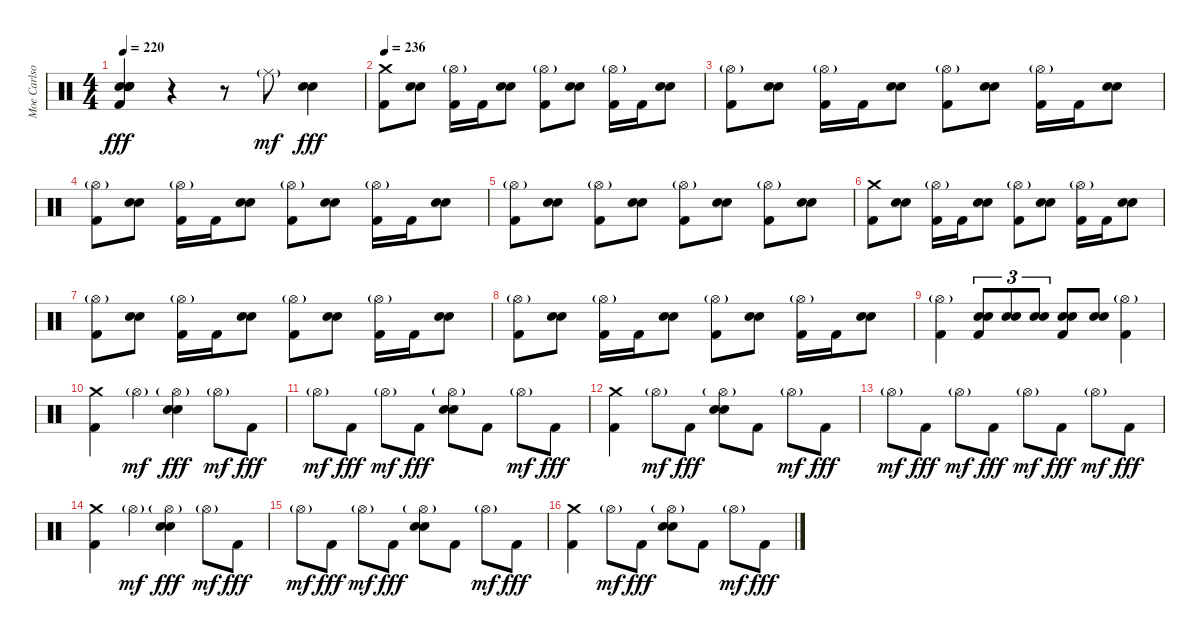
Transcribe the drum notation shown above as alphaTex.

\track ("Moe Carlson" "Moe Carlso") {instrument percussion}
\staff {score}
\articulation defaults
\ts (4 4)
\tempo 220
\clef neutral
\ks c
("Snare (hit) 2" "Snare (hit) 2" "Electric Snare (hit)" "Electric Snare (hit)" "Kick (hit) 2").4{dy fff} r.4 r.8 "Ride (middle)"{g}.8{dy mf} ("Snare (hit) 2" "Electric Snare (hit)").4{dy fff} |
\tempo 236
("Crash medium (hit)" "Kick (hit) 2").8 ("Snare (hit) 2" "Electric Snare (hit)").8 ("Hi-Hat (open)"{g} "Kick (hit) 2").16 "Kick (hit) 2".16 ("Snare (hit) 2" "Electric Snare (hit)").8 ("Hi-Hat (open)"{g} "Kick (hit) 2").8 ("Snare (hit) 2" "Electric Snare (hit)").8 ("Hi-Hat (open)"{g} "Kick (hit) 2").16 "Kick (hit) 2".16 ("Snare (hit) 2" "Electric Snare (hit)").8 |
("Hi-Hat (open)"{g} "Kick (hit) 2").8 ("Snare (hit) 2" "Electric Snare (hit)").8 ("Hi-Hat (open)"{g} "Kick (hit) 2").16 "Kick (hit) 2".16 ("Snare (hit) 2" "Electric Snare (hit)").8 ("Hi-Hat (open)"{g} "Kick (hit) 2").8 ("Snare (hit) 2" "Electric Snare (hit)").8 ("Hi-Hat (open)"{g} "Kick (hit) 2").16 "Kick (hit) 2".16 ("Snare (hit) 2" "Electric Snare (hit)").8 |
("Hi-Hat (open)"{g} "Kick (hit) 2").8 ("Snare (hit) 2" "Electric Snare (hit)").8 ("Hi-Hat (open)"{g} "Kick (hit) 2").16 "Kick (hit) 2".16 ("Snare (hit) 2" "Electric Snare (hit)").8 ("Hi-Hat (open)"{g} "Kick (hit) 2").8 ("Snare (hit) 2" "Electric Snare (hit)").8 ("Hi-Hat (open)"{g} "Kick (hit) 2").16 "Kick (hit) 2".16 ("Snare (hit) 2" "Electric Snare (hit)").8 |
("Hi-Hat (open)"{g} "Kick (hit) 2").8 ("Snare (hit) 2" "Electric Snare (hit)").8 ("Hi-Hat (open)"{g} "Kick (hit) 2").8 ("Snare (hit) 2" "Electric Snare (hit)").8 ("Hi-Hat (open)"{g} "Kick (hit) 2").8 ("Snare (hit) 2" "Electric Snare (hit)").8 ("Hi-Hat (open)"{g} "Kick (hit) 2").8 ("Snare (hit) 2" "Electric Snare (hit)").8 |
("Crash medium (hit)" "Kick (hit) 2").8 ("Snare (hit) 2" "Electric Snare (hit)").8 ("Hi-Hat (open)"{g} "Kick (hit) 2").16 "Kick (hit) 2".16 ("Snare (hit) 2" "Electric Snare (hit)").8 ("Hi-Hat (open)"{g} "Kick (hit) 2").8 ("Snare (hit) 2" "Electric Snare (hit)").8 ("Hi-Hat (open)"{g} "Kick (hit) 2").16 "Kick (hit) 2".16 ("Snare (hit) 2" "Electric Snare (hit)").8 |
("Hi-Hat (open)"{g} "Kick (hit) 2").8 ("Snare (hit) 2" "Electric Snare (hit)").8 ("Hi-Hat (open)"{g} "Kick (hit) 2").16 "Kick (hit) 2".16 ("Snare (hit) 2" "Electric Snare (hit)").8 ("Hi-Hat (open)"{g} "Kick (hit) 2").8 ("Snare (hit) 2" "Electric Snare (hit)").8 ("Hi-Hat (open)"{g} "Kick (hit) 2").16 "Kick (hit) 2".16 ("Snare (hit) 2" "Electric Snare (hit)").8 |
("Hi-Hat (open)"{g} "Kick (hit) 2").8 ("Snare (hit) 2" "Electric Snare (hit)").8 ("Hi-Hat (open)"{g} "Kick (hit) 2").16 "Kick (hit) 2".16 ("Snare (hit) 2" "Electric Snare (hit)").8 ("Hi-Hat (open)"{g} "Kick (hit) 2").8 ("Snare (hit) 2" "Electric Snare (hit)").8 ("Hi-Hat (open)"{g} "Kick (hit) 2").16 "Kick (hit) 2".16 ("Snare (hit) 2" "Electric Snare (hit)").8 |
("Hi-Hat (open)"{g} "Kick (hit) 2").4 ("Snare (hit) 2" "Electric Snare (hit)" "Kick (hit) 2").8{tu (3 2)} ("Snare (hit) 2" "Electric Snare (hit)").8{tu (3 2)} ("Snare (hit) 2" "Electric Snare (hit)").8{tu (3 2)} ("Snare (hit) 2" "Electric Snare (hit)" "Kick (hit) 2").8 ("Snare (hit) 2" "Electric Snare (hit)").8 ("Hi-Hat (open)"{g} "Kick (hit) 2").4 |
("Crash medium (hit)" "Kick (hit) 2").4 "Hi-Hat (open)"{g}.4{dy mf} ("Hi-Hat (open)"{g} "Snare (hit) 2" "Electric Snare (hit)").4{dy fff} "Hi-Hat (open)"{g}.8{dy mf} "Kick (hit) 2".8{dy fff} |
"Hi-Hat (open)"{g}.8{dy mf} "Kick (hit) 2".8{dy fff} "Hi-Hat (open)"{g}.8{dy mf} "Kick (hit) 2".8{dy fff} ("Hi-Hat (open)"{g} "Snare (hit) 2" "Electric Snare (hit)").8 "Kick (hit) 2".8 "Hi-Hat (open)"{g}.8{dy mf} "Kick (hit) 2".8{dy fff} |
("Crash medium (hit)" "Kick (hit) 2").4 "Hi-Hat (open)"{g}.8{dy mf} "Kick (hit) 2".8{dy fff} ("Hi-Hat (open)"{g} "Snare (hit) 2" "Electric Snare (hit)").8 "Kick (hit) 2".8 "Hi-Hat (open)"{g}.8{dy mf} "Kick (hit) 2".8{dy fff} |
"Hi-Hat (open)"{g}.8{dy mf} "Kick (hit) 2".8{dy fff} "Hi-Hat (open)"{g}.8{dy mf} "Kick (hit) 2".8{dy fff} "Hi-Hat (open)"{g}.8{dy mf} "Kick (hit) 2".8{dy fff} "Hi-Hat (open)"{g}.8{dy mf} "Kick (hit) 2".8{dy fff} |
("Crash medium (hit)" "Kick (hit) 2").4 "Hi-Hat (open)"{g}.4{dy mf} ("Hi-Hat (open)"{g} "Snare (hit) 2" "Electric Snare (hit)").4{dy fff} "Hi-Hat (open)"{g}.8{dy mf} "Kick (hit) 2".8{dy fff} |
"Hi-Hat (open)"{g}.8{dy mf} "Kick (hit) 2".8{dy fff} "Hi-Hat (open)"{g}.8{dy mf} "Kick (hit) 2".8{dy fff} ("Hi-Hat (open)"{g} "Snare (hit) 2" "Electric Snare (hit)").8 "Kick (hit) 2".8 "Hi-Hat (open)"{g}.8{dy mf} "Kick (hit) 2".8{dy fff} |
("Crash medium (hit)" "Kick (hit) 2").4 "Hi-Hat (open)"{g}.8{dy mf} "Kick (hit) 2".8{dy fff} ("Hi-Hat (open)"{g} "Snare (hit) 2" "Electric Snare (hit)").8 "Kick (hit) 2".8 "Hi-Hat (open)"{g}.8{dy mf} "Kick (hit) 2".8{dy fff}
